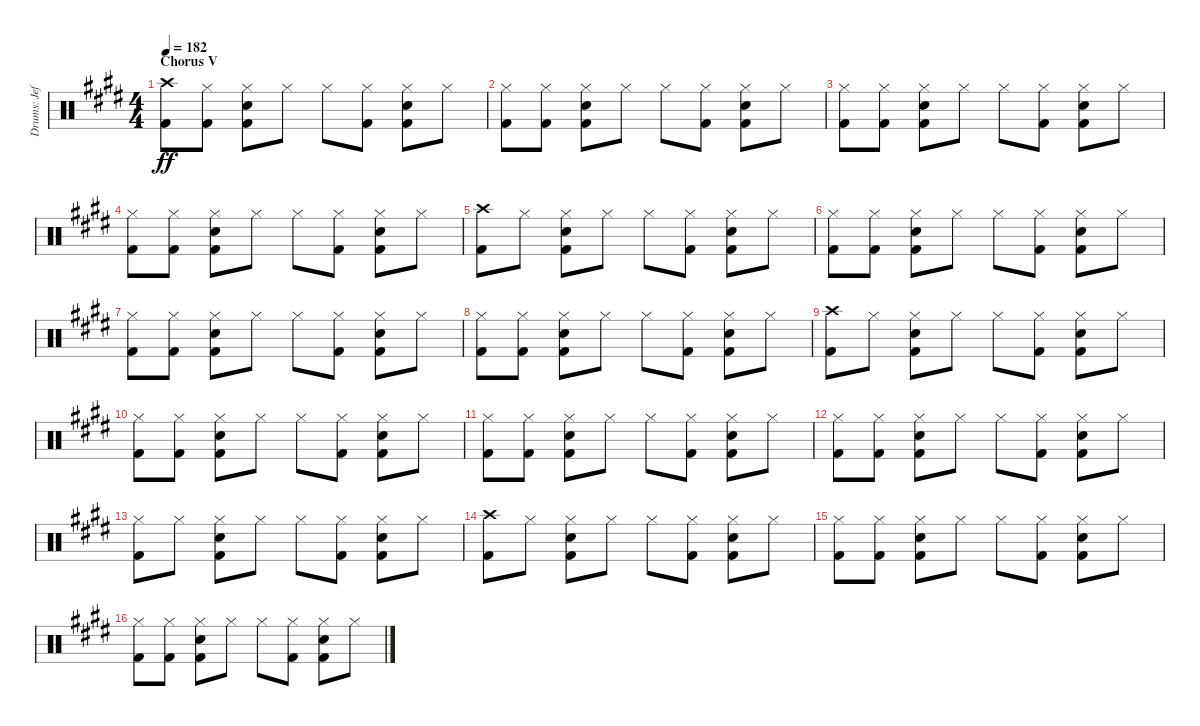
\track ("Drums: Jeff" "Drums: Jef") {instrument percussion}
\staff {score}
\articulation defaults
\ts (4 4)
\section ("" "Chorus V")
\tempo 182
\clef neutral
\ks e
("Crash high (hit)" "Kick (hit) 2").8{dy ff} ("Hi-Hat (closed)" "Kick (hit) 2").8 ("Hi-Hat (closed)" "Electric Snare (hit)" "Kick (hit) 2").8 "Hi-Hat (closed)".8 "Hi-Hat (closed)".8 ("Hi-Hat (closed)" "Kick (hit) 2").8 ("Hi-Hat (closed)" "Electric Snare (hit)" "Kick (hit) 2").8 "Hi-Hat (closed)".8 |
("Hi-Hat (closed)" "Kick (hit) 2").8 ("Hi-Hat (closed)" "Kick (hit) 2").8 ("Hi-Hat (closed)" "Electric Snare (hit)" "Kick (hit) 2").8 "Hi-Hat (closed)".8 "Hi-Hat (closed)".8 ("Hi-Hat (closed)" "Kick (hit) 2").8 ("Hi-Hat (closed)" "Electric Snare (hit)" "Kick (hit) 2").8 "Hi-Hat (closed)".8 |
("Hi-Hat (closed)" "Kick (hit) 2").8 ("Hi-Hat (closed)" "Kick (hit) 2").8 ("Hi-Hat (closed)" "Electric Snare (hit)" "Kick (hit) 2").8 "Hi-Hat (closed)".8 "Hi-Hat (closed)".8 ("Hi-Hat (closed)" "Kick (hit) 2").8 ("Hi-Hat (closed)" "Electric Snare (hit)" "Kick (hit) 2").8 "Hi-Hat (closed)".8 |
("Hi-Hat (closed)" "Kick (hit) 2").8 ("Hi-Hat (closed)" "Kick (hit) 2").8 ("Hi-Hat (closed)" "Electric Snare (hit)" "Kick (hit) 2").8 "Hi-Hat (closed)".8 "Hi-Hat (closed)".8 ("Hi-Hat (closed)" "Kick (hit) 2").8 ("Hi-Hat (closed)" "Electric Snare (hit)" "Kick (hit) 2").8 "Hi-Hat (closed)".8 |
("Crash high (hit)" "Kick (hit) 2").8 "Hi-Hat (closed)".8 ("Hi-Hat (closed)" "Electric Snare (hit)" "Kick (hit) 2").8 "Hi-Hat (closed)".8 "Hi-Hat (closed)".8 ("Hi-Hat (closed)" "Kick (hit) 2").8 ("Hi-Hat (closed)" "Electric Snare (hit)" "Kick (hit) 2").8 "Hi-Hat (closed)".8 |
("Hi-Hat (closed)" "Kick (hit) 2").8 ("Hi-Hat (closed)" "Kick (hit) 2").8 ("Hi-Hat (closed)" "Electric Snare (hit)" "Kick (hit) 2").8 "Hi-Hat (closed)".8 "Hi-Hat (closed)".8 ("Hi-Hat (closed)" "Kick (hit) 2").8 ("Hi-Hat (closed)" "Electric Snare (hit)" "Kick (hit) 2").8 "Hi-Hat (closed)".8 |
("Hi-Hat (closed)" "Kick (hit) 2").8 ("Hi-Hat (closed)" "Kick (hit) 2").8 ("Hi-Hat (closed)" "Electric Snare (hit)" "Kick (hit) 2").8 "Hi-Hat (closed)".8 "Hi-Hat (closed)".8 ("Hi-Hat (closed)" "Kick (hit) 2").8 ("Hi-Hat (closed)" "Electric Snare (hit)" "Kick (hit) 2").8 "Hi-Hat (closed)".8 |
("Hi-Hat (closed)" "Kick (hit) 2").8 ("Hi-Hat (closed)" "Kick (hit) 2").8 ("Hi-Hat (closed)" "Electric Snare (hit)" "Kick (hit) 2").8 "Hi-Hat (closed)".8 "Hi-Hat (closed)".8 ("Hi-Hat (closed)" "Kick (hit) 2").8 ("Hi-Hat (closed)" "Electric Snare (hit)" "Kick (hit) 2").8 "Hi-Hat (closed)".8 |
("Crash high (hit)" "Kick (hit) 2").8 "Hi-Hat (closed)".8 ("Hi-Hat (closed)" "Electric Snare (hit)" "Kick (hit) 2").8 "Hi-Hat (closed)".8 "Hi-Hat (closed)".8 ("Hi-Hat (closed)" "Kick (hit) 2").8 ("Hi-Hat (closed)" "Electric Snare (hit)" "Kick (hit) 2").8 "Hi-Hat (closed)".8 |
("Hi-Hat (closed)" "Kick (hit) 2").8 ("Hi-Hat (closed)" "Kick (hit) 2").8 ("Hi-Hat (closed)" "Electric Snare (hit)" "Kick (hit) 2").8 "Hi-Hat (closed)".8 "Hi-Hat (closed)".8 ("Hi-Hat (closed)" "Kick (hit) 2").8 ("Hi-Hat (closed)" "Electric Snare (hit)" "Kick (hit) 2").8 "Hi-Hat (closed)".8 |
("Hi-Hat (closed)" "Kick (hit) 2").8 ("Hi-Hat (closed)" "Kick (hit) 2").8 ("Hi-Hat (closed)" "Electric Snare (hit)" "Kick (hit) 2").8 "Hi-Hat (closed)".8 "Hi-Hat (closed)".8 ("Hi-Hat (closed)" "Kick (hit) 2").8 ("Hi-Hat (closed)" "Electric Snare (hit)" "Kick (hit) 2").8 "Hi-Hat (closed)".8 |
("Hi-Hat (closed)" "Kick (hit) 2").8 ("Hi-Hat (closed)" "Kick (hit) 2").8 ("Hi-Hat (closed)" "Electric Snare (hit)" "Kick (hit) 2").8 "Hi-Hat (closed)".8 "Hi-Hat (closed)".8 ("Hi-Hat (closed)" "Kick (hit) 2").8 ("Hi-Hat (closed)" "Electric Snare (hit)" "Kick (hit) 2").8 "Hi-Hat (closed)".8 |
("Hi-Hat (closed)" "Kick (hit) 2").8 "Hi-Hat (closed)".8 ("Hi-Hat (closed)" "Electric Snare (hit)" "Kick (hit) 2").8 "Hi-Hat (closed)".8 "Hi-Hat (closed)".8 ("Hi-Hat (closed)" "Kick (hit) 2").8 ("Hi-Hat (closed)" "Electric Snare (hit)" "Kick (hit) 2").8 "Hi-Hat (closed)".8 |
("Crash high (hit)" "Kick (hit) 2").8 "Hi-Hat (closed)".8 ("Hi-Hat (closed)" "Electric Snare (hit)" "Kick (hit) 2").8 "Hi-Hat (closed)".8 "Hi-Hat (closed)".8 ("Hi-Hat (closed)" "Kick (hit) 2").8 ("Hi-Hat (closed)" "Electric Snare (hit)" "Kick (hit) 2").8 "Hi-Hat (closed)".8 |
("Hi-Hat (closed)" "Kick (hit) 2").8 ("Hi-Hat (closed)" "Kick (hit) 2").8 ("Hi-Hat (closed)" "Electric Snare (hit)" "Kick (hit) 2").8 "Hi-Hat (closed)".8 "Hi-Hat (closed)".8 ("Hi-Hat (closed)" "Kick (hit) 2").8 ("Hi-Hat (closed)" "Electric Snare (hit)" "Kick (hit) 2").8 "Hi-Hat (closed)".8 |
("Hi-Hat (closed)" "Kick (hit) 2").8 ("Hi-Hat (closed)" "Kick (hit) 2").8 ("Hi-Hat (closed)" "Electric Snare (hit)" "Kick (hit) 2").8 "Hi-Hat (closed)".8 "Hi-Hat (closed)".8 ("Hi-Hat (closed)" "Kick (hit) 2").8 ("Hi-Hat (closed)" "Electric Snare (hit)" "Kick (hit) 2").8 "Hi-Hat (closed)".8
